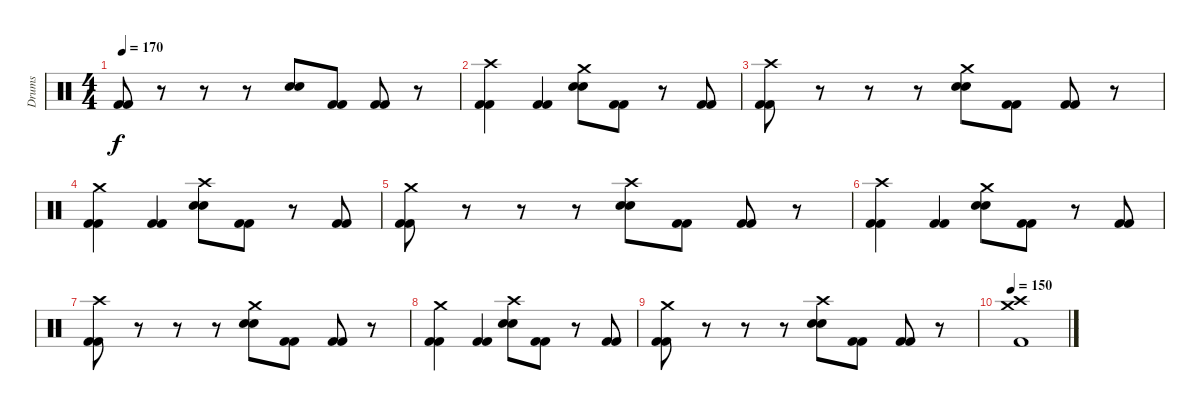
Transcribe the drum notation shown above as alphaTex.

\track ("Drums" "Drums") {instrument percussion}
\staff {score}
\articulation defaults
\ts (4 4)
\tempo 170
\clef neutral
\ks c
("Kick (hit) 2" "Kick (hit) 2").8{dy f} r.8 r.8 r.8 ("Electric Snare (hit)" "Electric Snare (hit)").8 ("Kick (hit) 2" "Kick (hit) 2").8 ("Kick (hit) 2" "Kick (hit) 2").8 r.8 |
("Crash high (hit)" "Kick (hit) 2" "Kick (hit) 2").4 ("Kick (hit) 2" "Kick (hit) 2").4 ("Crash medium (hit)" "Electric Snare (hit)" "Electric Snare (hit)").8 ("Kick (hit) 2" "Kick (hit) 2").8 r.8 ("Kick (hit) 2" "Kick (hit) 2").8 |
("Crash high (hit)" "Kick (hit) 2" "Kick (hit) 2").8 r.8 r.8 r.8 ("Crash medium (hit)" "Electric Snare (hit)" "Electric Snare (hit)").8 ("Kick (hit) 2" "Kick (hit) 2").8 ("Kick (hit) 2" "Kick (hit) 2").8 r.8 |
("Crash medium (hit)" "Kick (hit) 2" "Kick (hit) 2").4 ("Kick (hit) 2" "Kick (hit) 2").4 ("Crash high (hit)" "Electric Snare (hit)" "Electric Snare (hit)").8 ("Kick (hit) 2" "Kick (hit) 2").8 r.8 ("Kick (hit) 2" "Kick (hit) 2").8 |
("Crash medium (hit)" "Kick (hit) 2" "Kick (hit) 2").8 r.8 r.8 r.8 ("Crash high (hit)" "Electric Snare (hit)" "Electric Snare (hit)").8 ("Kick (hit) 2" "Kick (hit) 2").8 ("Kick (hit) 2" "Kick (hit) 2").8 r.8 |
("Crash high (hit)" "Kick (hit) 2" "Kick (hit) 2").4 ("Kick (hit) 2" "Kick (hit) 2").4 ("Crash medium (hit)" "Electric Snare (hit)" "Electric Snare (hit)").8 ("Kick (hit) 2" "Kick (hit) 2").8 r.8 ("Kick (hit) 2" "Kick (hit) 2").8 |
("Crash high (hit)" "Kick (hit) 2" "Kick (hit) 2").8 r.8 r.8 r.8 ("Crash medium (hit)" "Electric Snare (hit)" "Electric Snare (hit)").8 ("Kick (hit) 2" "Kick (hit) 2").8 ("Kick (hit) 2" "Kick (hit) 2").8 r.8 |
("Crash medium (hit)" "Kick (hit) 2" "Kick (hit) 2").4 ("Kick (hit) 2" "Kick (hit) 2").4 ("Crash high (hit)" "Electric Snare (hit)" "Electric Snare (hit)").8 ("Kick (hit) 2" "Kick (hit) 2").8 r.8 ("Kick (hit) 2" "Kick (hit) 2").8 |
("Crash medium (hit)" "Kick (hit) 2" "Kick (hit) 2").8 r.8 r.8 r.8 ("Crash high (hit)" "Electric Snare (hit)" "Electric Snare (hit)").8 ("Kick (hit) 2" "Kick (hit) 2").8 ("Kick (hit) 2" "Kick (hit) 2").8 r.8 |
\tempo 150
("Crash medium (hit)" "Crash high (hit)" "Kick (hit) 2").1
